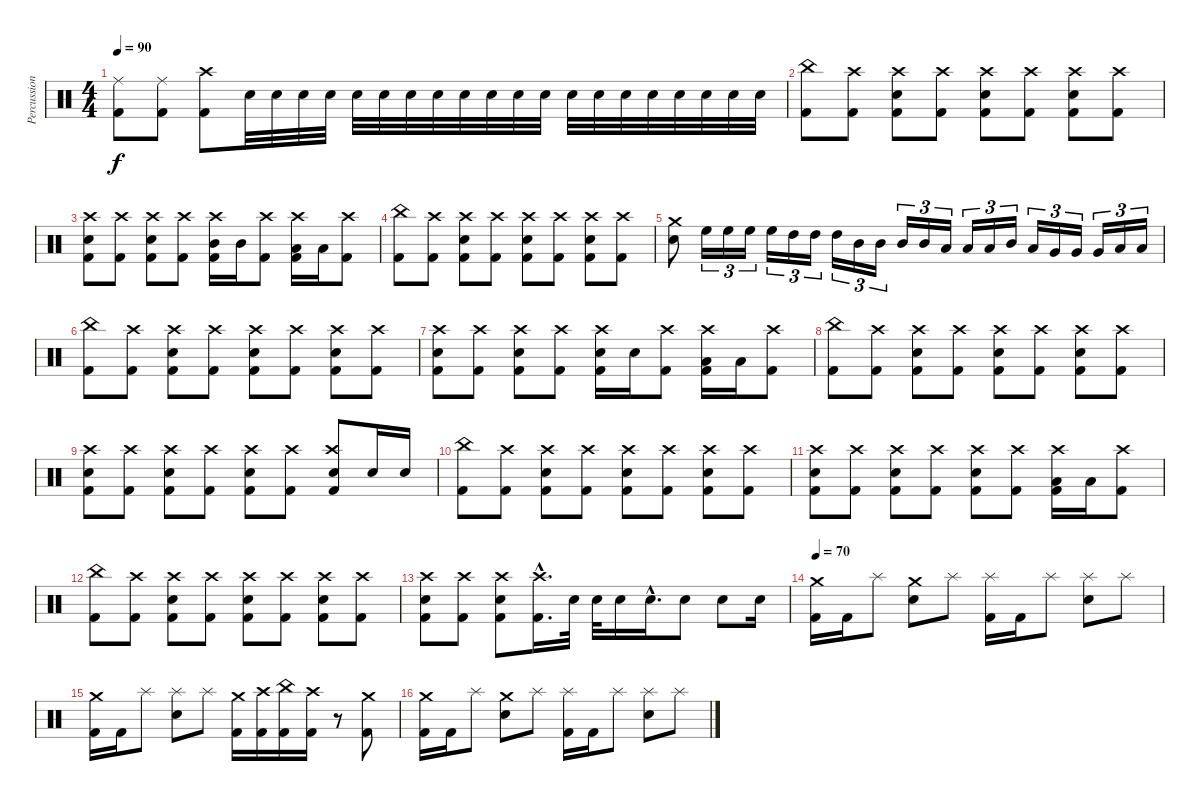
\track ("Percussions" "Percussion") {instrument percussion}
\staff {score}
\articulation defaults
\ts (4 4)
\tempo 90
\clef neutral
\ks c
("Ride (middle)" "Kick (hit) 2").8{dy f} ("Ride (middle)" "Kick (hit) 2").8 ("Crash high (hit)" "Kick (hit) 2").8 "Electric Snare (hit)".32 "Electric Snare (hit)".32 "Electric Snare (hit)".32 "Electric Snare (hit)".32 "Electric Snare (hit)".32 "Electric Snare (hit)".32 "Electric Snare (hit)".32 "Electric Snare (hit)".32 "Electric Snare (hit)".32 "Electric Snare (hit)".32 "Electric Snare (hit)".32 "Electric Snare (hit)".32 "Electric Snare (hit)".32 "Electric Snare (hit)".32 "Electric Snare (hit)".32 "Electric Snare (hit)".32 "Electric Snare (hit)".32 "Electric Snare (hit)".32 "Electric Snare (hit)".32 "Electric Snare (hit)".32 |
("China (hit)" "Kick (hit) 2").8 ("Crash high (hit)" "Kick (hit) 2").8 ("Crash high (hit)" "Electric Snare (hit)" "Kick (hit) 2").8 ("Crash high (hit)" "Kick (hit) 2").8 ("Crash high (hit)" "Electric Snare (hit)" "Kick (hit) 2").8 ("Crash high (hit)" "Kick (hit) 2").8 ("Crash high (hit)" "Electric Snare (hit)" "Kick (hit) 2").8 ("Crash high (hit)" "Kick (hit) 2").8 |
("Crash high (hit)" "Electric Snare (hit)" "Kick (hit) 2").8 ("Crash high (hit)" "Kick (hit) 2").8 ("Crash high (hit)" "Electric Snare (hit)" "Kick (hit) 2").8 ("Crash high (hit)" "Kick (hit) 2").8 ("Crash high (hit)" "Mid Tom (hit)" "Kick (hit) 2").16 "Mid Tom (hit)".16 ("Crash high (hit)" "Kick (hit) 2").8 ("Crash high (hit)" "Low Tom (hit)" "Kick (hit) 2").16 "Low Tom (hit)".16 ("Crash high (hit)" "Kick (hit) 2").8 |
("China (hit)" "Kick (hit) 2").8 ("Crash high (hit)" "Kick (hit) 2").8 ("Crash high (hit)" "Electric Snare (hit)" "Kick (hit) 2").8 ("Crash high (hit)" "Kick (hit) 2").8 ("Crash high (hit)" "Electric Snare (hit)" "Kick (hit) 2").8 ("Crash high (hit)" "Kick (hit) 2").8 ("Crash high (hit)" "Electric Snare (hit)" "Kick (hit) 2").8 ("Crash high (hit)" "Kick (hit) 2").8 |
("Crash medium (hit)" "Electric Snare (hit)").8 "High Floor Tom (hit)".16{tu (3 2)} "High Floor Tom (hit)".16{tu (3 2)} "High Floor Tom (hit)".16{tu (3 2)} "High Floor Tom (hit)".16{tu (3 2)} "High Tom (hit)".16{tu (3 2)} "High Tom (hit)".16{tu (3 2)} "High Tom (hit)".16{tu (3 2)} "Mid Tom (hit)".16{tu (3 2)} "Mid Tom (hit)".16{tu (3 2)} "Mid Tom (hit)".16{tu (3 2)} "Mid Tom (hit)".16{tu (3 2)} "Low Tom (hit)".16{tu (3 2)} "Low Tom (hit)".16{tu (3 2)} "Low Tom (hit)".16{tu (3 2)} "Mid Tom (hit)".16{tu (3 2)} "Low Tom (hit)".16{tu (3 2)} "Very Low Tom (hit)".16{tu (3 2)} "Very Low Tom (hit)".16{tu (3 2)} "Very Low Tom (hit)".16{tu (3 2)} "Low Floor Tom (hit)".16{tu (3 2)} "Low Floor Tom (hit)".16{tu (3 2)} |
("China (hit)" "Kick (hit) 2").8 ("Crash high (hit)" "Kick (hit) 2").8 ("Crash high (hit)" "Electric Snare (hit)" "Kick (hit) 2").8 ("Crash high (hit)" "Kick (hit) 2").8 ("Crash high (hit)" "Electric Snare (hit)" "Kick (hit) 2").8 ("Crash high (hit)" "Kick (hit) 2").8 ("Crash high (hit)" "Electric Snare (hit)" "Kick (hit) 2").8 ("Crash high (hit)" "Kick (hit) 2").8 |
("Crash high (hit)" "Electric Snare (hit)" "Kick (hit) 2").8 ("Crash high (hit)" "Kick (hit) 2").8 ("Crash high (hit)" "Electric Snare (hit)" "Kick (hit) 2").8 ("Crash high (hit)" "Kick (hit) 2").8 ("Crash high (hit)" "Electric Snare (hit)" "Kick (hit) 2").16 "Electric Snare (hit)".16 ("Crash high (hit)" "Kick (hit) 2").8 ("Crash high (hit)" "Low Tom (hit)" "Kick (hit) 2").16 "Low Tom (hit)".16 ("Crash high (hit)" "Kick (hit) 2").8 |
("China (hit)" "Kick (hit) 2").8 ("Crash high (hit)" "Kick (hit) 2").8 ("Crash high (hit)" "Electric Snare (hit)" "Kick (hit) 2").8 ("Crash high (hit)" "Kick (hit) 2").8 ("Crash high (hit)" "Electric Snare (hit)" "Kick (hit) 2").8 ("Crash high (hit)" "Kick (hit) 2").8 ("Crash high (hit)" "Electric Snare (hit)" "Kick (hit) 2").8 ("Crash high (hit)" "Kick (hit) 2").8 |
("Crash high (hit)" "Electric Snare (hit)" "Kick (hit) 2").8 ("Crash high (hit)" "Kick (hit) 2").8 ("Crash high (hit)" "Electric Snare (hit)" "Kick (hit) 2").8 ("Crash high (hit)" "Kick (hit) 2").8 ("Crash high (hit)" "Electric Snare (hit)" "Kick (hit) 2").8 ("Crash high (hit)" "Kick (hit) 2").8 ("Crash high (hit)" "Electric Snare (hit)" "Kick (hit) 2").8 "Electric Snare (hit)".16 "Electric Snare (hit)".16 |
("China (hit)" "Kick (hit) 2").8 ("Crash high (hit)" "Kick (hit) 2").8 ("Crash high (hit)" "Electric Snare (hit)" "Kick (hit) 2").8 ("Crash high (hit)" "Kick (hit) 2").8 ("Crash high (hit)" "Electric Snare (hit)" "Kick (hit) 2").8 ("Crash high (hit)" "Kick (hit) 2").8 ("Crash high (hit)" "Electric Snare (hit)" "Kick (hit) 2").8 ("Crash high (hit)" "Kick (hit) 2").8 |
("Crash high (hit)" "Electric Snare (hit)" "Kick (hit) 2").8 ("Crash high (hit)" "Kick (hit) 2").8 ("Crash high (hit)" "Electric Snare (hit)" "Kick (hit) 2").8 ("Crash high (hit)" "Kick (hit) 2").8 ("Crash high (hit)" "Electric Snare (hit)" "Kick (hit) 2").8 ("Crash high (hit)" "Kick (hit) 2").8 ("Crash high (hit)" "Low Tom (hit)" "Kick (hit) 2").16 "Low Tom (hit)".16 ("Crash high (hit)" "Kick (hit) 2").8 |
("China (hit)" "Kick (hit) 2").8 ("Crash high (hit)" "Kick (hit) 2").8 ("Crash high (hit)" "Electric Snare (hit)" "Kick (hit) 2").8 ("Crash high (hit)" "Kick (hit) 2").8 ("Crash high (hit)" "Electric Snare (hit)" "Kick (hit) 2").8 ("Crash high (hit)" "Kick (hit) 2").8 ("Crash high (hit)" "Electric Snare (hit)" "Kick (hit) 2").8 ("Crash high (hit)" "Kick (hit) 2").8 |
("Crash high (hit)" "Electric Snare (hit)" "Kick (hit) 2").8 ("Crash high (hit)" "Kick (hit) 2").8 ("Crash high (hit)" "Electric Snare (hit)" "Kick (hit) 2").8 ("Crash high (hit)"{hac} "Kick (hit) 2"{hac}).16{d} "Electric Snare (hit)".32 "Electric Snare (hit)".32 "Electric Snare (hit)".16 "Electric Snare (hit)"{hac}.16{d} "Electric Snare (hit)".8 "Electric Snare (hit)".8 "Electric Snare (hit)".16 |
\tempo 70
("Crash medium (hit)" "Kick (hit) 2").16 "Kick (hit) 2".16 "Splash (hit)".8 ("Crash medium (hit)" "Electric Snare (hit)").8 "Splash (hit)".8 ("Splash (hit)" "Kick (hit) 2").16 "Kick (hit) 2".16 "Splash (hit)".8 ("Splash (hit)" "Electric Snare (hit)").8 "Splash (hit)".8 |
("Crash medium (hit)" "Kick (hit) 2").16 "Kick (hit) 2".16 "Splash (hit)".8 ("Splash (hit)" "Electric Snare (hit)").8 "Splash (hit)".8 ("Crash medium (hit)" "Kick (hit) 2").16 ("Crash high (hit)" "Kick (hit) 2").16 ("China (hit)" "Kick (hit) 2").16 ("Crash high (hit)" "Kick (hit) 2").16 r.8 ("Crash medium (hit)" "Kick (hit) 2").8 |
("Crash medium (hit)" "Kick (hit) 2").16 "Kick (hit) 2".16 "Splash (hit)".8 ("Crash medium (hit)" "Electric Snare (hit)").8 "Splash (hit)".8 ("Splash (hit)" "Kick (hit) 2").16 "Kick (hit) 2".16 "Splash (hit)".8 ("Splash (hit)" "Electric Snare (hit)").8 "Splash (hit)".8
